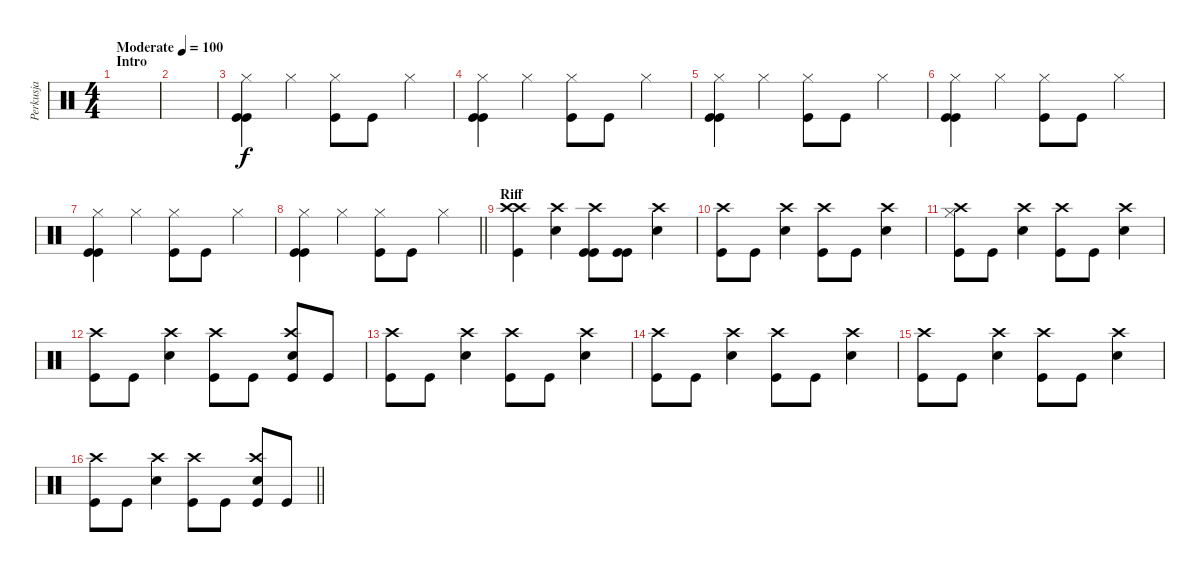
\track ("Perkusja" "Perkusja") {instrument percussion}
\staff {score}
\articulation defaults
\ts (4 4)
\section ("" "Intro")
\tempo (100 "Moderate")
\clef neutral
\ks c
|
|
("Kick (hit)" "Kick (hit)" "Hi-Hat (closed)").4 "Hi-Hat (closed)".4 ("Kick (hit)" "Hi-Hat (closed)").8 "Kick (hit)".8 "Hi-Hat (closed)".4 |
("Kick (hit)" "Kick (hit)" "Hi-Hat (closed)").4 "Hi-Hat (closed)".4 ("Hi-Hat (closed)" "Kick (hit)").8 "Kick (hit)".8 "Hi-Hat (closed)".4 |
("Kick (hit)" "Kick (hit)" "Hi-Hat (closed)").4 "Hi-Hat (closed)".4 ("Kick (hit)" "Hi-Hat (closed)").8 "Kick (hit)".8 "Hi-Hat (closed)".4 |
("Kick (hit)" "Kick (hit)" "Hi-Hat (closed)").4 "Hi-Hat (closed)".4 ("Kick (hit)" "Hi-Hat (closed)").8 "Kick (hit)".8 "Hi-Hat (closed)".4 |
("Kick (hit)" "Kick (hit)" "Hi-Hat (closed)").4 "Hi-Hat (closed)".4 ("Kick (hit)" "Hi-Hat (closed)").8 "Kick (hit)".8 "Hi-Hat (closed)".4 |
\barLineRight lightlight
("Kick (hit)" "Kick (hit)" "Hi-Hat (closed)").4 "Hi-Hat (closed)".4 ("Kick (hit)" "Hi-Hat (closed)").8 "Kick (hit)".8 "Hi-Hat (closed)".4 |
\section ("" "Riff")
("Crash high (hit)" "Kick (hit)" "Crash high (hit)").4 ("Crash high (hit)" "Snare (hit) 2").4 ("Crash high (hit)" "Kick (hit)" "Kick (hit)").8 ("Kick (hit)" "Kick (hit)").8 ("Crash high (hit)" "Snare (hit) 2").4 |
("Crash high (hit)" "Kick (hit)").8 "Kick (hit)".8 ("Crash high (hit)" "Snare (hit) 2").4 ("Crash high (hit)" "Kick (hit)").8 "Kick (hit)".8 ("Crash high (hit)" "Snare (hit) 2").4 |
("Hi-Hat (closed)" "Kick (hit)" "Crash high (hit)").8 "Kick (hit)".8 ("Crash high (hit)" "Snare (hit) 2").4 ("Crash high (hit)" "Kick (hit)").8 "Kick (hit)".8 ("Crash high (hit)" "Snare (hit) 2").4 |
("Crash high (hit)" "Kick (hit)").8 "Kick (hit)".8 ("Crash high (hit)" "Snare (hit) 2").4 ("Crash high (hit)" "Kick (hit)").8 "Kick (hit)".8 ("Crash high (hit)" "Snare (hit) 2" "Kick (hit)").8 "Kick (hit)".8 |
("Crash high (hit)" "Kick (hit)").8 "Kick (hit)".8 ("Crash high (hit)" "Snare (hit) 2").4 ("Crash high (hit)" "Kick (hit)").8 "Kick (hit)".8 ("Crash high (hit)" "Snare (hit) 2").4 |
("Crash high (hit)" "Kick (hit)").8 "Kick (hit)".8 ("Crash high (hit)" "Snare (hit) 2").4 ("Crash high (hit)" "Kick (hit)").8 "Kick (hit)".8 ("Crash high (hit)" "Snare (hit) 2").4 |
("Crash high (hit)" "Kick (hit)").8 "Kick (hit)".8 ("Crash high (hit)" "Snare (hit) 2").4 ("Crash high (hit)" "Kick (hit)").8 "Kick (hit)".8 ("Crash high (hit)" "Snare (hit) 2").4 |
\barLineRight lightlight
("Crash high (hit)" "Kick (hit)").8 "Kick (hit)".8 ("Crash high (hit)" "Snare (hit) 2").4 ("Crash high (hit)" "Kick (hit)").8 "Kick (hit)".8 ("Crash high (hit)" "Snare (hit) 2" "Kick (hit)").8 "Kick (hit)".8
